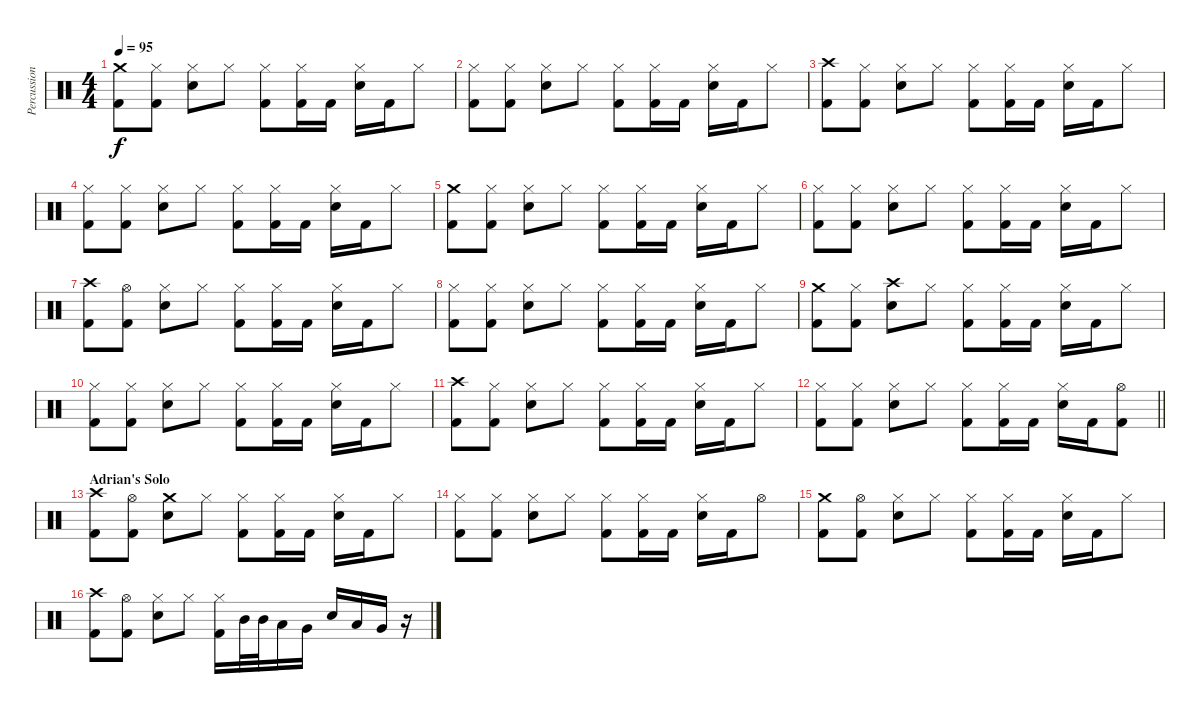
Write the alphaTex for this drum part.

\track ("Percussion" "Percussion") {instrument percussion}
\staff {score}
\articulation defaults
\ts (4 4)
\tempo 95
\clef neutral
\ks c
("Crash medium (hit)" "Kick (hit) 2").8{dy f} ("Hi-Hat (closed)" "Kick (hit) 2").8 ("Hi-Hat (closed)" "Snare (hit) 2").8 "Hi-Hat (closed)".8 ("Hi-Hat (closed)" "Kick (hit) 2").8 ("Hi-Hat (closed)" "Kick (hit) 2").16 "Kick (hit) 2".16 ("Hi-Hat (closed)" "Snare (hit) 2").16 "Kick (hit) 2".16 "Hi-Hat (closed)".8 |
("Hi-Hat (closed)" "Kick (hit) 2").8 ("Hi-Hat (closed)" "Kick (hit) 2").8 ("Hi-Hat (closed)" "Snare (hit) 2").8 "Hi-Hat (closed)".8 ("Hi-Hat (closed)" "Kick (hit) 2").8 ("Hi-Hat (closed)" "Kick (hit) 2").16 "Kick (hit) 2".16 ("Hi-Hat (closed)" "Snare (hit) 2").16 "Kick (hit) 2".16 "Hi-Hat (closed)".8 |
("Crash high (hit)" "Kick (hit) 2").8 ("Hi-Hat (closed)" "Kick (hit) 2").8 ("Hi-Hat (closed)" "Snare (hit) 2").8 "Hi-Hat (closed)".8 ("Hi-Hat (closed)" "Kick (hit) 2").8 ("Hi-Hat (closed)" "Kick (hit) 2").16 "Kick (hit) 2".16 ("Hi-Hat (closed)" "Snare (hit) 2").16 "Kick (hit) 2".16 "Hi-Hat (closed)".8 |
("Hi-Hat (closed)" "Kick (hit) 2").8 ("Hi-Hat (closed)" "Kick (hit) 2").8 ("Hi-Hat (closed)" "Snare (hit) 2").8 "Hi-Hat (closed)".8 ("Hi-Hat (closed)" "Kick (hit) 2").8 ("Hi-Hat (closed)" "Kick (hit) 2").16 "Kick (hit) 2".16 ("Hi-Hat (closed)" "Snare (hit) 2").16 "Kick (hit) 2".16 "Hi-Hat (closed)".8 |
("Crash medium (hit)" "Kick (hit) 2").8 ("Hi-Hat (closed)" "Kick (hit) 2").8 ("Hi-Hat (closed)" "Snare (hit) 2").8 "Hi-Hat (closed)".8 ("Hi-Hat (closed)" "Kick (hit) 2").8 ("Hi-Hat (closed)" "Kick (hit) 2").16 "Kick (hit) 2".16 ("Hi-Hat (closed)" "Snare (hit) 2").16 "Kick (hit) 2".16 "Hi-Hat (closed)".8 |
("Hi-Hat (closed)" "Kick (hit) 2").8 ("Hi-Hat (closed)" "Kick (hit) 2").8 ("Hi-Hat (closed)" "Snare (hit) 2").8 "Hi-Hat (closed)".8 ("Hi-Hat (closed)" "Kick (hit) 2").8 ("Hi-Hat (closed)" "Kick (hit) 2").16 "Kick (hit) 2".16 ("Hi-Hat (closed)" "Snare (hit) 2").16 "Kick (hit) 2".16 "Hi-Hat (closed)".8 |
("Crash high (hit)" "Kick (hit) 2").8 ("Hi-Hat (open)" "Kick (hit) 2").8 ("Hi-Hat (closed)" "Snare (hit) 2").8 "Hi-Hat (closed)".8 ("Hi-Hat (closed)" "Kick (hit) 2").8 ("Hi-Hat (closed)" "Kick (hit) 2").16 "Kick (hit) 2".16 ("Hi-Hat (closed)" "Snare (hit) 2").16 "Kick (hit) 2".16 "Hi-Hat (closed)".8 |
("Hi-Hat (closed)" "Kick (hit) 2").8 ("Hi-Hat (closed)" "Kick (hit) 2").8 ("Hi-Hat (closed)" "Snare (hit) 2").8 "Hi-Hat (closed)".8 ("Hi-Hat (closed)" "Kick (hit) 2").8 ("Hi-Hat (closed)" "Kick (hit) 2").16 "Kick (hit) 2".16 ("Hi-Hat (closed)" "Snare (hit) 2").16 "Kick (hit) 2".16 "Hi-Hat (closed)".8 |
("Crash medium (hit)" "Kick (hit) 2").8 ("Hi-Hat (closed)" "Kick (hit) 2").8 ("Crash high (hit)" "Snare (hit) 2").8 "Hi-Hat (closed)".8 ("Hi-Hat (closed)" "Kick (hit) 2").8 ("Hi-Hat (closed)" "Kick (hit) 2").16 "Kick (hit) 2".16 ("Hi-Hat (closed)" "Snare (hit) 2").16 "Kick (hit) 2".16 "Hi-Hat (closed)".8 |
("Hi-Hat (closed)" "Kick (hit) 2").8 ("Hi-Hat (closed)" "Kick (hit) 2").8 ("Hi-Hat (closed)" "Snare (hit) 2").8 "Hi-Hat (closed)".8 ("Hi-Hat (closed)" "Kick (hit) 2").8 ("Hi-Hat (closed)" "Kick (hit) 2").16 "Kick (hit) 2".16 ("Hi-Hat (closed)" "Snare (hit) 2").16 "Kick (hit) 2".16 "Hi-Hat (closed)".8 |
("Crash high (hit)" "Kick (hit) 2").8 ("Hi-Hat (closed)" "Kick (hit) 2").8 ("Hi-Hat (closed)" "Snare (hit) 2").8 "Hi-Hat (closed)".8 ("Hi-Hat (closed)" "Kick (hit) 2").8 ("Hi-Hat (closed)" "Kick (hit) 2").16 "Kick (hit) 2".16 ("Hi-Hat (closed)" "Snare (hit) 2").16 "Kick (hit) 2".16 "Hi-Hat (closed)".8 |
\barLineRight lightlight
("Hi-Hat (closed)" "Kick (hit) 2").8 ("Hi-Hat (closed)" "Kick (hit) 2").8 ("Hi-Hat (closed)" "Snare (hit) 2").8 "Hi-Hat (closed)".8 ("Hi-Hat (closed)" "Kick (hit) 2").8 ("Hi-Hat (closed)" "Kick (hit) 2").16 "Kick (hit) 2".16 ("Hi-Hat (closed)" "Snare (hit) 2").16 "Kick (hit) 2".16 ("Hi-Hat (open)" "Kick (hit) 2").8 |
\section ("" "Adrian's Solo")
("Crash high (hit)" "Kick (hit) 2").8 ("Hi-Hat (open)" "Kick (hit) 2").8 ("Crash medium (hit)" "Snare (hit) 2").8 "Hi-Hat (closed)".8 ("Hi-Hat (closed)" "Kick (hit) 2").8 ("Hi-Hat (closed)" "Kick (hit) 2").16 "Kick (hit) 2".16 ("Hi-Hat (closed)" "Snare (hit) 2").16 "Kick (hit) 2".16 "Hi-Hat (closed)".8 |
("Hi-Hat (closed)" "Kick (hit) 2").8 ("Hi-Hat (closed)" "Kick (hit) 2").8 ("Hi-Hat (closed)" "Snare (hit) 2").8 "Hi-Hat (closed)".8 ("Hi-Hat (closed)" "Kick (hit) 2").8 ("Hi-Hat (closed)" "Kick (hit) 2").16 "Kick (hit) 2".16 ("Hi-Hat (closed)" "Snare (hit) 2").16 "Kick (hit) 2".16 "Hi-Hat (open)".8 |
("Crash medium (hit)" "Kick (hit) 2").8 ("Hi-Hat (open)" "Kick (hit) 2").8 ("Hi-Hat (closed)" "Snare (hit) 2").8 "Hi-Hat (closed)".8 ("Hi-Hat (closed)" "Kick (hit) 2").8 ("Hi-Hat (closed)" "Kick (hit) 2").16 "Kick (hit) 2".16 ("Hi-Hat (closed)" "Snare (hit) 2").16 "Kick (hit) 2".16 "Hi-Hat (closed)".8 |
("Crash high (hit)" "Kick (hit) 2").8 ("Hi-Hat (open)" "Kick (hit) 2").8 ("Hi-Hat (closed)" "Snare (hit) 2").8 "Hi-Hat (closed)".8 ("Hi-Hat (closed)" "Kick (hit) 2").16 "Mid Tom (hit)".32 "Mid Tom (hit)".32 "Low Tom (hit)".16 "Very Low Tom (hit)".16 "Snare (hit) 2".16 "Low Tom (hit)".16 "Very Low Tom (hit)".16 r.16
